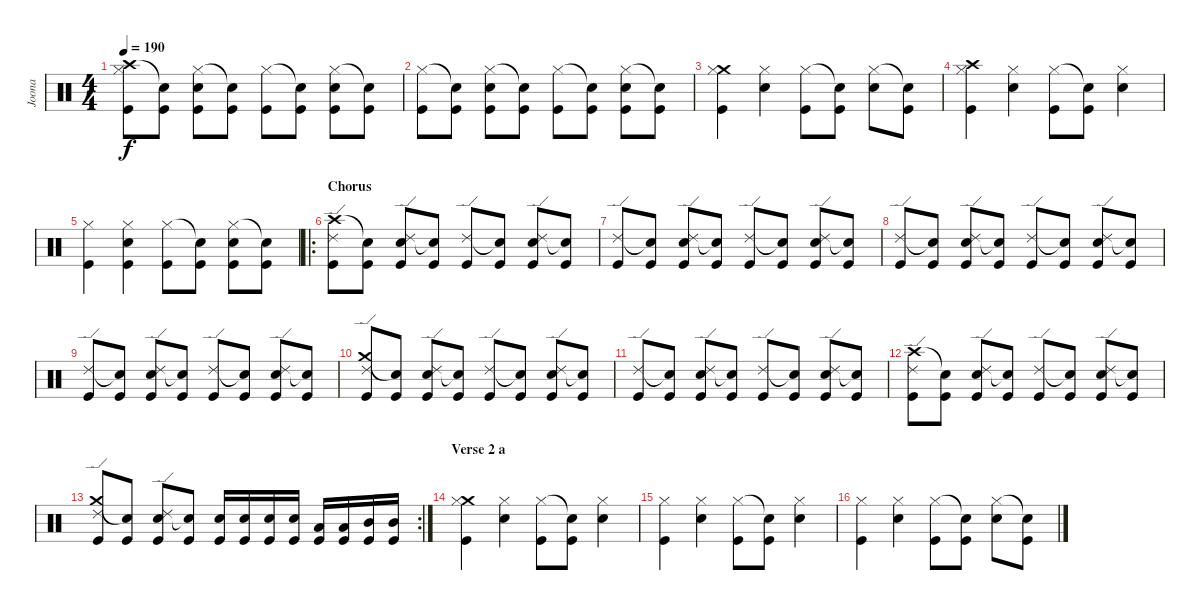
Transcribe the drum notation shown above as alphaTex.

\track ("Joona" "Joona") {instrument percussion}
\staff {score}
\articulation defaults
\ts (4 4)
\tempo 190
\clef neutral
\ks c
("Crash high (hit)" "Hi-Hat (closed)" "Kick (hit)").8{dy f} ("Snare (hit)"{t} "Kick (hit)").8 ("Hi-Hat (closed)" "Snare (hit) 2" "Kick (hit)").8 ("Snare (hit)"{t} "Kick (hit)").8 ("Hi-Hat (closed)" "Kick (hit)").8 ("Snare (hit)"{t} "Kick (hit)").8 ("Hi-Hat (closed)" "Snare (hit) 2" "Kick (hit)").8 ("Snare (hit)"{t} "Kick (hit)").8 |
("Hi-Hat (closed)" "Kick (hit)").8 ("Snare (hit)"{t} "Kick (hit)").8 ("Hi-Hat (closed)" "Snare (hit) 2" "Kick (hit)").8 ("Snare (hit)"{t} "Kick (hit)").8 ("Hi-Hat (closed)" "Kick (hit)").8 ("Snare (hit)"{t} "Kick (hit)").8 ("Hi-Hat (closed)" "Snare (hit) 2" "Kick (hit)").8 ("Snare (hit)"{t} "Kick (hit)").8 |
("Crash medium (hit)" "Hi-Hat (closed)" "Kick (hit)").4 ("Hi-Hat (closed)" "Snare (hit) 2").4 ("Hi-Hat (closed)" "Kick (hit)").8 ("Snare (hit)"{t} "Kick (hit)").8 ("Hi-Hat (closed)" "Snare (hit) 2").8 ("Snare (hit)"{t} "Kick (hit)").8 |
("Crash high (hit)" "Hi-Hat (closed)" "Kick (hit)").4 ("Hi-Hat (closed)" "Snare (hit) 2").4 ("Hi-Hat (closed)" "Kick (hit)").8 ("Snare (hit)"{t} "Kick (hit)").8 ("Hi-Hat (closed)" "Snare (hit) 2").4 |
("Hi-Hat (closed)" "Kick (hit)").4 ("Hi-Hat (closed)" "Snare (hit) 2" "Kick (hit)").4 ("Hi-Hat (closed)" "Kick (hit)").8 ("Snare (hit)"{t} "Kick (hit)").8 ("Hi-Hat (closed)" "Snare (hit) 2" "Kick (hit)").8 ("Snare (hit)"{t} "Kick (hit)").8 |
\ro
\section ("" "Chorus")
("Crash high (hit)" "Ride (edge) 2" "Kick (hit)").8 ("Snare (hit)"{t} "Kick (hit)").8 ("Ride (edge) 2" "Snare (hit) 2" "Kick (hit)").8 ("Snare (hit)"{t} "Kick (hit)").8 ("Ride (edge) 2" "Kick (hit)").8 ("Snare (hit)"{t} "Kick (hit)").8 ("Ride (edge) 2" "Snare (hit) 2" "Kick (hit)").8 ("Snare (hit)"{t} "Kick (hit)").8 |
("Ride (edge) 2" "Kick (hit)").8 ("Snare (hit)"{t} "Kick (hit)").8 ("Ride (edge) 2" "Snare (hit) 2" "Kick (hit)").8 ("Snare (hit)"{t} "Kick (hit)").8 ("Ride (edge) 2" "Kick (hit)").8 ("Snare (hit)"{t} "Kick (hit)").8 ("Ride (edge) 2" "Snare (hit) 2" "Kick (hit)").8 ("Snare (hit)"{t} "Kick (hit)").8 |
("Ride (edge) 2" "Kick (hit)").8 ("Snare (hit)"{t} "Kick (hit)").8 ("Ride (edge) 2" "Snare (hit) 2" "Kick (hit)").8 ("Snare (hit)"{t} "Kick (hit)").8 ("Ride (edge) 2" "Kick (hit)").8 ("Snare (hit)"{t} "Kick (hit)").8 ("Ride (edge) 2" "Snare (hit) 2" "Kick (hit)").8 ("Snare (hit)"{t} "Kick (hit)").8 |
("Ride (edge) 2" "Kick (hit)").8 ("Snare (hit)"{t} "Kick (hit)").8 ("Ride (edge) 2" "Snare (hit) 2" "Kick (hit)").8 ("Snare (hit)"{t} "Kick (hit)").8 ("Ride (edge) 2" "Kick (hit)").8 ("Snare (hit)"{t} "Kick (hit)").8 ("Ride (edge) 2" "Snare (hit) 2" "Kick (hit)").8 ("Snare (hit)"{t} "Kick (hit)").8 |
("Crash medium (hit)" "Ride (edge) 2" "Kick (hit)").8 ("Snare (hit)"{t} "Kick (hit)").8 ("Ride (edge) 2" "Snare (hit) 2" "Kick (hit)").8 ("Snare (hit)"{t} "Kick (hit)").8 ("Ride (edge) 2" "Kick (hit)").8 ("Snare (hit)"{t} "Kick (hit)").8 ("Ride (edge) 2" "Snare (hit) 2" "Kick (hit)").8 ("Snare (hit)"{t} "Kick (hit)").8 |
("Ride (edge) 2" "Kick (hit)").8 ("Snare (hit)"{t} "Kick (hit)").8 ("Ride (edge) 2" "Snare (hit) 2" "Kick (hit)").8 ("Snare (hit)"{t} "Kick (hit)").8 ("Ride (edge) 2" "Kick (hit)").8 ("Snare (hit)"{t} "Kick (hit)").8 ("Ride (edge) 2" "Snare (hit) 2" "Kick (hit)").8 ("Snare (hit)"{t} "Kick (hit)").8 |
("Crash high (hit)" "Ride (edge) 2" "Kick (hit)").8 ("Snare (hit)"{t} "Kick (hit)").8 ("Ride (edge) 2" "Snare (hit) 2" "Kick (hit)").8 ("Snare (hit)"{t} "Kick (hit)").8 ("Ride (edge) 2" "Kick (hit)").8 ("Snare (hit)"{t} "Kick (hit)").8 ("Ride (edge) 2" "Snare (hit) 2" "Kick (hit)").8 ("Snare (hit)"{t} "Kick (hit)").8 |
\rc 2
("Crash medium (hit)" "Ride (edge) 2" "Kick (hit)").8 ("Snare (hit)"{t} "Kick (hit)").8 ("Ride (edge) 2" "Snare (hit) 2" "Kick (hit)").8 ("Snare (hit)"{t} "Kick (hit)").8 ("Snare (hit) 2" "Kick (hit)").16 ("Snare (hit) 2" "Kick (hit)").16 ("Snare (hit) 2" "Kick (hit)").16 ("Snare (hit) 2" "Kick (hit)").16 ("Low Tom (hit)" "Kick (hit)").16 ("Low Tom (hit)" "Kick (hit)").16 ("Mid Tom (hit)" "Kick (hit)").16 ("Mid Tom (hit)" "Kick (hit)").16 |
\section ("" "Verse 2 a")
("Crash medium (hit)" "Hi-Hat (closed)" "Kick (hit)").4 ("Hi-Hat (closed)" "Snare (hit) 2").4 ("Hi-Hat (closed)" "Kick (hit)").8 ("Snare (hit)"{t} "Kick (hit)").8 ("Hi-Hat (closed)" "Snare (hit) 2").4 |
("Hi-Hat (closed)" "Kick (hit)").4 ("Hi-Hat (closed)" "Snare (hit) 2").4 ("Hi-Hat (closed)" "Kick (hit)").8 ("Snare (hit)"{t} "Kick (hit)").8 ("Hi-Hat (closed)" "Snare (hit) 2").4 |
("Hi-Hat (closed)" "Kick (hit)").4 ("Hi-Hat (closed)" "Snare (hit) 2").4 ("Hi-Hat (closed)" "Kick (hit)").8 ("Snare (hit)"{t} "Kick (hit)").8 ("Hi-Hat (closed)" "Snare (hit) 2").8 ("Snare (hit)"{t} "Kick (hit)").8
